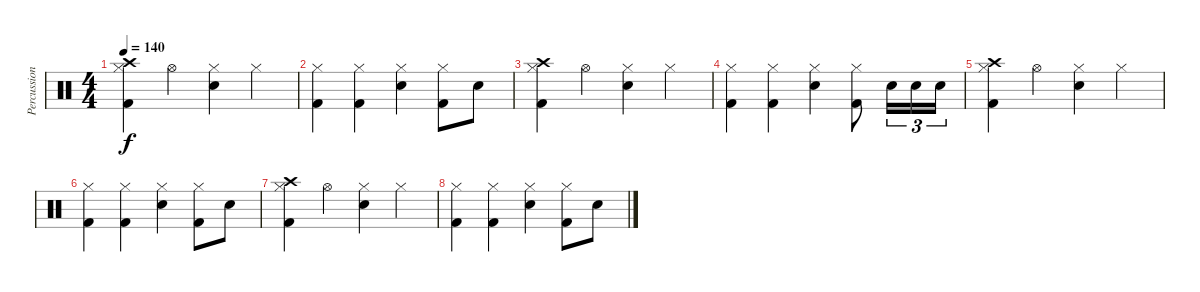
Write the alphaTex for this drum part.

\track ("Percussion" "Percussion") {instrument percussion}
\staff {score}
\articulation defaults
\ts (4 4)
\tempo 140
\clef neutral
\ks c
("Crash high (hit)" "Hi-Hat (closed)" "Kick (hit) 2").4{dy f} "Hi-Hat (open)".4 ("Hi-Hat (closed)" "Electric Snare (hit)").4 "Hi-Hat (closed)".4 |
("Hi-Hat (closed)" "Kick (hit) 2").4 ("Hi-Hat (closed)" "Kick (hit) 2").4 ("Hi-Hat (closed)" "Electric Snare (hit)").4 ("Hi-Hat (closed)" "Kick (hit) 2").8 "Electric Snare (hit)".8 |
("Crash high (hit)" "Hi-Hat (closed)" "Kick (hit) 2").4 "Hi-Hat (open)".4 ("Hi-Hat (closed)" "Electric Snare (hit)").4 "Hi-Hat (closed)".4 |
("Hi-Hat (closed)" "Kick (hit) 2").4 ("Hi-Hat (closed)" "Kick (hit) 2").4 ("Hi-Hat (closed)" "Electric Snare (hit)").4 ("Hi-Hat (closed)" "Kick (hit) 2").8 "Electric Snare (hit)".16{tu (3 2)} "Electric Snare (hit)".16{tu (3 2)} "Electric Snare (hit)".16{tu (3 2)} |
("Crash high (hit)" "Hi-Hat (closed)" "Kick (hit) 2").4 "Hi-Hat (open)".4 ("Hi-Hat (closed)" "Electric Snare (hit)").4 "Hi-Hat (closed)".4 |
("Hi-Hat (closed)" "Kick (hit) 2").4 ("Hi-Hat (closed)" "Kick (hit) 2").4 ("Hi-Hat (closed)" "Electric Snare (hit)").4 ("Hi-Hat (closed)" "Kick (hit) 2").8 "Electric Snare (hit)".8 |
("Crash high (hit)" "Hi-Hat (closed)" "Kick (hit) 2").4 "Hi-Hat (open)".4 ("Hi-Hat (closed)" "Electric Snare (hit)").4 "Hi-Hat (closed)".4 |
("Hi-Hat (closed)" "Kick (hit) 2").4 ("Hi-Hat (closed)" "Kick (hit) 2").4 ("Hi-Hat (closed)" "Electric Snare (hit)").4 ("Hi-Hat (closed)" "Kick (hit) 2").8 "Electric Snare (hit)".8
